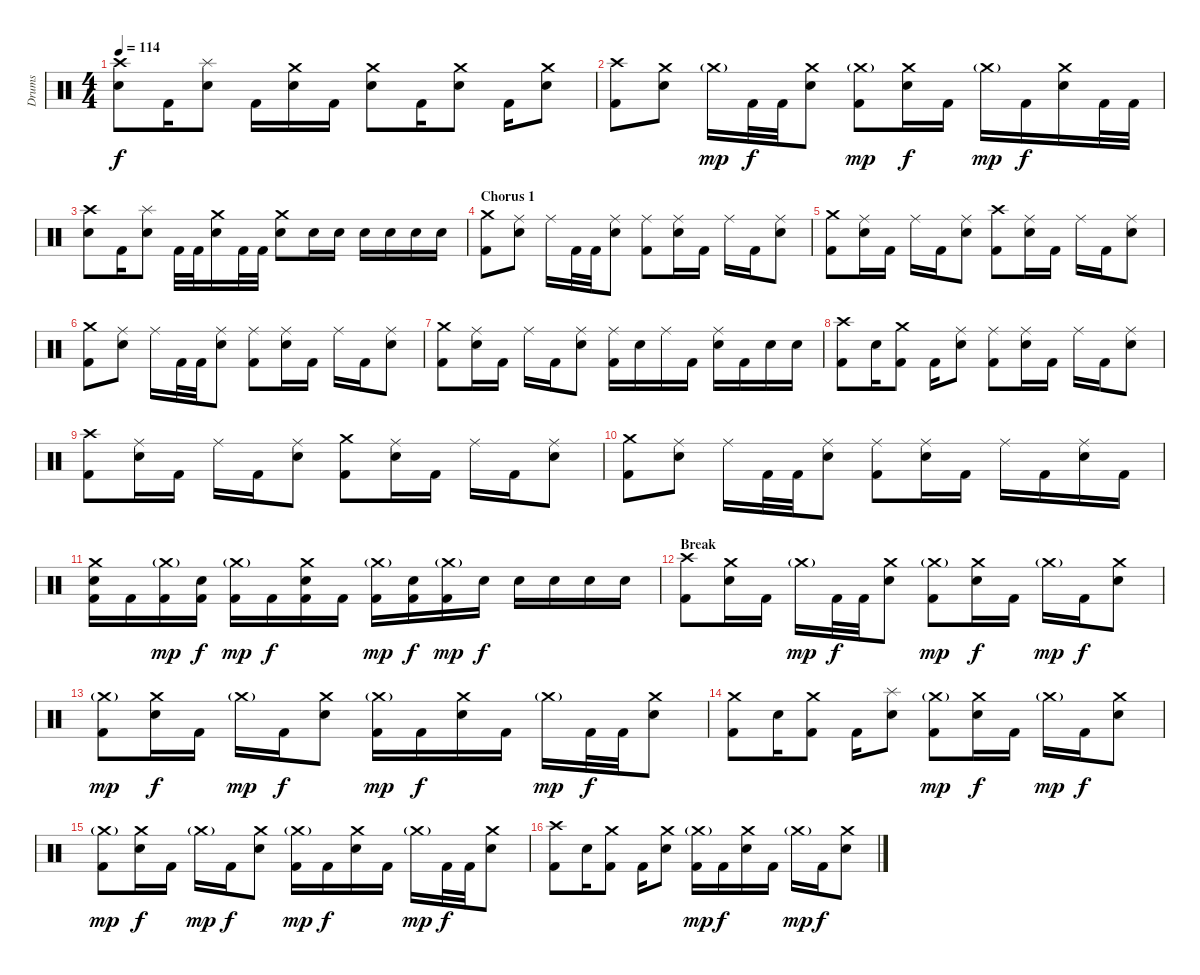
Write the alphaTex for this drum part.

\track ("Drums" "Drums") {instrument percussion}
\staff {score}
\articulation defaults
\ts (4 4)
\tempo 114
\clef neutral
\ks c
("Crash high (hit)" "Snare (hit) 2").8{dy f} "Kick (hit) 2".16 ("Splash (hit)" "Snare (hit) 2").8 "Kick (hit) 2".16 ("Crash medium (hit)" "Snare (hit) 2").16 "Kick (hit) 2".16 ("Crash medium (hit)" "Snare (hit) 2").8 "Kick (hit) 2".16 ("Crash medium (hit)" "Snare (hit) 2").8 "Kick (hit) 2".16 ("Crash medium (hit)" "Snare (hit) 2").8 |
("Crash high (hit)" "Kick (hit) 2").8 ("Crash medium (hit)" "Snare (hit) 2").8 "Crash medium (hit)"{g}.16{dy mp} "Kick (hit) 2".32{dy f} "Kick (hit) 2".32 ("Crash medium (hit)" "Snare (hit) 2").8 ("Crash medium (hit)"{g} "Kick (hit) 2").8{dy mp} ("Crash medium (hit)" "Snare (hit) 2").16{dy f} "Kick (hit) 2".16 "Crash medium (hit)"{g}.16{dy mp} "Kick (hit) 2".16{dy f} ("Crash medium (hit)" "Snare (hit) 2").16 "Kick (hit) 2".32 "Kick (hit) 2".32 |
("Crash high (hit)" "Snare (hit) 2").8 "Kick (hit) 2".16 ("Splash (hit)" "Snare (hit) 2").8 "Kick (hit) 2".32 "Kick (hit) 2".32 ("Crash medium (hit)" "Snare (hit) 2").16 "Kick (hit) 2".32 "Kick (hit) 2".32 ("Crash medium (hit)" "Snare (hit) 2").8 "Snare (hit) 2".16 "Snare (hit) 2".16 "Snare (hit) 2".16 "Snare (hit) 2".16 "Snare (hit) 2".16 "Snare (hit) 2".16 |
\section ("" "Chorus 1")
("Crash medium (hit)" "Kick (hit) 2").8 ("Ride (middle)" "Snare (hit) 2").8 "Ride (middle)".16 "Kick (hit) 2".32 "Kick (hit) 2".32 ("Ride (middle)" "Snare (hit) 2").8 ("Ride (middle)" "Kick (hit) 2").8 ("Ride (middle)" "Snare (hit) 2").16 "Kick (hit) 2".16 "Ride (middle)".16 "Kick (hit) 2".16 ("Ride (middle)" "Snare (hit) 2").8 |
("Crash medium (hit)" "Kick (hit) 2").8 ("Ride (middle)" "Snare (hit) 2").16 "Kick (hit) 2".16 "Ride (middle)".16 "Kick (hit) 2".16 ("Ride (middle)" "Snare (hit) 2").8 ("Crash high (hit)" "Kick (hit) 2").8 ("Ride (middle)" "Snare (hit) 2").16 "Kick (hit) 2".16 "Ride (middle)".16 "Kick (hit) 2".16 ("Ride (middle)" "Snare (hit) 2").8 |
("Crash medium (hit)" "Kick (hit) 2").8 ("Ride (middle)" "Snare (hit) 2").8 "Ride (middle)".16 "Kick (hit) 2".32 "Kick (hit) 2".32 ("Ride (middle)" "Snare (hit) 2").8 ("Ride (middle)" "Kick (hit) 2").8 ("Ride (middle)" "Snare (hit) 2").16 "Kick (hit) 2".16 "Ride (middle)".16 "Kick (hit) 2".16 ("Ride (middle)" "Snare (hit) 2").8 |
("Crash medium (hit)" "Kick (hit) 2").8 ("Ride (middle)" "Snare (hit) 2").16 "Kick (hit) 2".16 "Ride (middle)".16 "Kick (hit) 2".16 ("Ride (middle)" "Snare (hit) 2").8 ("Ride (middle)" "Kick (hit) 2").16 "Snare (hit) 2".16 "Ride (middle)".16 "Kick (hit) 2".16 ("Ride (middle)" "Snare (hit) 2").16 "Kick (hit) 2".16 "Snare (hit) 2".16 "Snare (hit) 2".16 |
("Crash high (hit)" "Kick (hit) 2").8 "Snare (hit) 2".16 ("Crash medium (hit)" "Kick (hit) 2").8 "Kick (hit) 2".16 ("Ride (middle)" "Snare (hit) 2").8 ("Ride (middle)" "Kick (hit) 2").8 ("Ride (middle)" "Snare (hit) 2").16 "Kick (hit) 2".16 "Ride (middle)".16 "Kick (hit) 2".16 ("Ride (middle)" "Snare (hit) 2").8 |
("Crash high (hit)" "Kick (hit) 2").8 ("Ride (middle)" "Snare (hit) 2").16 "Kick (hit) 2".16 "Ride (middle)".16 "Kick (hit) 2".16 ("Ride (middle)" "Snare (hit) 2").8 ("Crash medium (hit)" "Kick (hit) 2").8 ("Ride (middle)" "Snare (hit) 2").16 "Kick (hit) 2".16 "Ride (middle)".16 "Kick (hit) 2".16 ("Ride (middle)" "Snare (hit) 2").8 |
("Crash medium (hit)" "Kick (hit) 2").8 ("Ride (middle)" "Snare (hit) 2").8 "Ride (middle)".16 "Kick (hit) 2".32 "Kick (hit) 2".32 ("Ride (middle)" "Snare (hit) 2").8 ("Ride (middle)" "Kick (hit) 2").8 ("Ride (middle)" "Snare (hit) 2").16 "Kick (hit) 2".16 "Ride (middle)".16 "Kick (hit) 2".16 ("Ride (middle)" "Snare (hit) 2").16 "Kick (hit) 2".16 |
("Crash medium (hit)" "Snare (hit) 2" "Kick (hit) 2").16 "Kick (hit) 2".16 ("Crash medium (hit)"{g} "Kick (hit) 2").16{dy mp} ("Snare (hit) 2" "Kick (hit) 2").16{dy f} ("Crash medium (hit)"{g} "Kick (hit) 2").16{dy mp} "Kick (hit) 2".16{dy f} ("Crash medium (hit)" "Snare (hit) 2" "Kick (hit) 2").16 "Kick (hit) 2".16 ("Crash medium (hit)"{g} "Kick (hit) 2").16{dy mp} ("Snare (hit) 2" "Kick (hit) 2").16{dy f} ("Crash medium (hit)"{g} "Kick (hit) 2").16{dy mp} "Snare (hit) 2".16{dy f} "Snare (hit) 2".16 "Snare (hit) 2".16 "Snare (hit) 2".16 "Snare (hit) 2".16 |
\section ("" "Break")
("Crash high (hit)" "Kick (hit) 2").8 ("Crash medium (hit)" "Snare (hit) 2").16 "Kick (hit) 2".16 "Crash medium (hit)"{g}.16{dy mp} "Kick (hit) 2".32{dy f} "Kick (hit) 2".32 ("Crash medium (hit)" "Snare (hit) 2").8 ("Crash medium (hit)"{g} "Kick (hit) 2").8{dy mp} ("Crash medium (hit)" "Snare (hit) 2").16{dy f} "Kick (hit) 2".16 "Crash medium (hit)"{g}.16{dy mp} "Kick (hit) 2".16{dy f} ("Crash medium (hit)" "Snare (hit) 2").8 |
("Crash medium (hit)"{g} "Kick (hit) 2").8{dy mp} ("Crash medium (hit)" "Snare (hit) 2").16{dy f} "Kick (hit) 2".16 "Crash medium (hit)"{g}.16{dy mp} "Kick (hit) 2".16{dy f} ("Crash medium (hit)" "Snare (hit) 2").8 ("Crash medium (hit)"{g} "Kick (hit) 2").16{dy mp} "Kick (hit) 2".16{dy f} ("Crash medium (hit)" "Snare (hit) 2").16 "Kick (hit) 2".16 "Crash medium (hit)"{g}.16{dy mp} "Kick (hit) 2".32{dy f} "Kick (hit) 2".32 ("Crash medium (hit)" "Snare (hit) 2").8 |
("Crash medium (hit)" "Kick (hit) 2").8 "Snare (hit) 2".16 ("Crash medium (hit)" "Kick (hit) 2").8 "Kick (hit) 2".16 ("Splash (hit)" "Snare (hit) 2").8 ("Crash medium (hit)"{g} "Kick (hit) 2").8{dy mp} ("Crash medium (hit)" "Snare (hit) 2").16{dy f} "Kick (hit) 2".16 "Crash medium (hit)"{g}.16{dy mp} "Kick (hit) 2".16{dy f} ("Crash medium (hit)" "Snare (hit) 2").8 |
("Crash medium (hit)"{g} "Kick (hit) 2").8{dy mp} ("Crash medium (hit)" "Snare (hit) 2").16{dy f} "Kick (hit) 2".16 "Crash medium (hit)"{g}.16{dy mp} "Kick (hit) 2".16{dy f} ("Crash medium (hit)" "Snare (hit) 2").8 ("Crash medium (hit)"{g} "Kick (hit) 2").16{dy mp} "Kick (hit) 2".16{dy f} ("Crash medium (hit)" "Snare (hit) 2").16 "Kick (hit) 2".16 "Crash medium (hit)"{g}.16{dy mp} "Kick (hit) 2".32{dy f} "Kick (hit) 2".32 ("Crash medium (hit)" "Snare (hit) 2").8 |
("Crash high (hit)" "Kick (hit) 2").8 "Snare (hit) 2".16 ("Crash medium (hit)" "Kick (hit) 2").8 "Kick (hit) 2".16 ("Crash medium (hit)" "Snare (hit) 2").8 ("Crash medium (hit)"{g} "Kick (hit) 2").16{dy mp} "Kick (hit) 2".16{dy f} ("Crash medium (hit)" "Snare (hit) 2").16 "Kick (hit) 2".16 "Crash medium (hit)"{g}.16{dy mp} "Kick (hit) 2".16{dy f} ("Crash medium (hit)" "Snare (hit) 2").8
